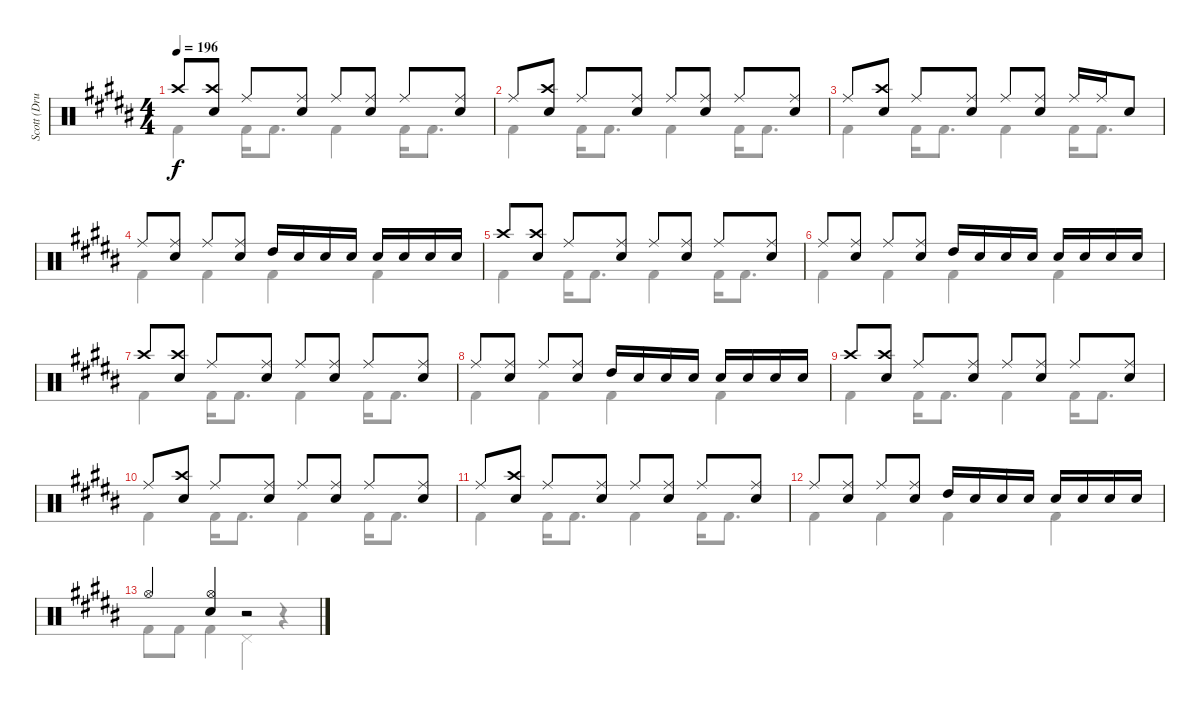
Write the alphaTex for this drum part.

\track ("Scott (Drums)" "Scott (Dru") {instrument percussion}
\staff {score}
\articulation defaults
\voice
\ts (4 4)
\tempo 196
\clef neutral
\ks b "Crash high (hit)".8{dy f}
("Crash high (hit)" "Electric Snare (hit)").8 "Ride (middle)".8 ("Ride (middle)" "Electric Snare (hit)").8 "Ride (middle)".8 ("Ride (middle)" "Electric Snare (hit)").8 "Ride (middle)".8 ("Ride (middle)" "Electric Snare (hit)").8 |
"Ride (middle)".8 ("Crash high (hit)" "Electric Snare (hit)").8 "Ride (middle)".8 ("Ride (middle)" "Electric Snare (hit)").8 "Ride (middle)".8 ("Ride (middle)" "Electric Snare (hit)").8 "Ride (middle)".8 ("Ride (middle)" "Electric Snare (hit)").8 |
"Ride (middle)".8 ("Crash high (hit)" "Electric Snare (hit)").8 "Ride (middle)".8 ("Ride (middle)" "Electric Snare (hit)").8 "Ride (middle)".8 ("Ride (middle)" "Electric Snare (hit)").8 "Ride (middle)".16 "Ride (middle)".16 "Electric Snare (hit)".8 |
"Ride (middle)".8 ("Ride (middle)" "Electric Snare (hit)").8 "Ride (middle)".8 ("Ride (middle)" "Electric Snare (hit)").8 "High Tom (hit)".16 "Electric Snare (hit)".16 "Electric Snare (hit)".16 "Electric Snare (hit)".16 "Electric Snare (hit)".16 "Electric Snare (hit)".16 "Electric Snare (hit)".16 "Electric Snare (hit)".16 |
"Crash high (hit)".8 ("Crash high (hit)" "Electric Snare (hit)").8 "Ride (middle)".8 ("Ride (middle)" "Electric Snare (hit)").8 "Ride (middle)".8 ("Ride (middle)" "Electric Snare (hit)").8 "Ride (middle)".8 ("Ride (middle)" "Electric Snare (hit)").8 |
"Ride (middle)".8 ("Ride (middle)" "Electric Snare (hit)").8 "Ride (middle)".8 ("Ride (middle)" "Electric Snare (hit)").8 "High Tom (hit)".16 "Electric Snare (hit)".16 "Electric Snare (hit)".16 "Electric Snare (hit)".16 "Electric Snare (hit)".16 "Electric Snare (hit)".16 "Electric Snare (hit)".16 "Electric Snare (hit)".16 |
"Crash high (hit)".8 ("Crash high (hit)" "Electric Snare (hit)").8 "Ride (middle)".8 ("Ride (middle)" "Electric Snare (hit)").8 "Ride (middle)".8 ("Ride (middle)" "Electric Snare (hit)").8 "Ride (middle)".8 ("Ride (middle)" "Electric Snare (hit)").8 |
"Ride (middle)".8 ("Ride (middle)" "Electric Snare (hit)").8 "Ride (middle)".8 ("Ride (middle)" "Electric Snare (hit)").8 "High Tom (hit)".16 "Electric Snare (hit)".16 "Electric Snare (hit)".16 "Electric Snare (hit)".16 "Electric Snare (hit)".16 "Electric Snare (hit)".16 "Electric Snare (hit)".16 "Electric Snare (hit)".16 |
"Crash high (hit)".8 ("Crash high (hit)" "Electric Snare (hit)").8 "Ride (middle)".8 ("Ride (middle)" "Electric Snare (hit)").8 "Ride (middle)".8 ("Ride (middle)" "Electric Snare (hit)").8 "Ride (middle)".8 ("Ride (middle)" "Electric Snare (hit)").8 |
"Ride (middle)".8 ("Crash high (hit)" "Electric Snare (hit)").8 "Ride (middle)".8 ("Ride (middle)" "Electric Snare (hit)").8 "Ride (middle)".8 ("Ride (middle)" "Electric Snare (hit)").8 "Ride (middle)".8 ("Ride (middle)" "Electric Snare (hit)").8 |
"Ride (middle)".8 ("Crash high (hit)" "Electric Snare (hit)").8 "Ride (middle)".8 ("Ride (middle)" "Electric Snare (hit)").8 "Ride (middle)".8 ("Ride (middle)" "Electric Snare (hit)").8 "Ride (middle)".8 ("Ride (middle)" "Electric Snare (hit)").8 |
"Ride (middle)".8 ("Ride (middle)" "Electric Snare (hit)").8 "Ride (middle)".8 ("Ride (middle)" "Electric Snare (hit)").8 "High Tom (hit)".16 "Electric Snare (hit)".16 "Electric Snare (hit)".16 "Electric Snare (hit)".16 "Electric Snare (hit)".16 "Electric Snare (hit)".16 "Electric Snare (hit)".16 "Electric Snare (hit)".16 |
"Hi-Hat (open)".4 ("Hi-Hat (open)" "Electric Snare (hit)").4 r.2
\voice
\clef neutral
\ottava regular
\simile none
\ks b "Kick (hit) 2".4{dy f} "Kick (hit) 2".16 "Kick (hit) 2".8{d} "Kick (hit) 2".4 "Kick (hit) 2".16 "Kick (hit) 2".8{d}
|
"Kick (hit) 2".4 "Kick (hit) 2".16 "Kick (hit) 2".8{d} "Kick (hit) 2".4 "Kick (hit) 2".16 "Kick (hit) 2".8{d} |
"Kick (hit) 2".4 "Kick (hit) 2".16 "Kick (hit) 2".8{d} "Kick (hit) 2".4 "Kick (hit) 2".16 "Kick (hit) 2".8{d} |
"Kick (hit) 2".4 "Kick (hit) 2".4 "Kick (hit) 2".4 "Kick (hit) 2".4 |
"Kick (hit) 2".4 "Kick (hit) 2".16 "Kick (hit) 2".8{d} "Kick (hit) 2".4 "Kick (hit) 2".16 "Kick (hit) 2".8{d} |
"Kick (hit) 2".4 "Kick (hit) 2".4 "Kick (hit) 2".4 "Kick (hit) 2".4 |
"Kick (hit) 2".4 "Kick (hit) 2".16 "Kick (hit) 2".8{d} "Kick (hit) 2".4 "Kick (hit) 2".16 "Kick (hit) 2".8{d} |
"Kick (hit) 2".4 "Kick (hit) 2".4 "Kick (hit) 2".4 "Kick (hit) 2".4 |
"Kick (hit) 2".4 "Kick (hit) 2".16 "Kick (hit) 2".8{d} "Kick (hit) 2".4 "Kick (hit) 2".16 "Kick (hit) 2".8{d} |
"Kick (hit) 2".4 "Kick (hit) 2".16 "Kick (hit) 2".8{d} "Kick (hit) 2".4 "Kick (hit) 2".16 "Kick (hit) 2".8{d} |
"Kick (hit) 2".4 "Kick (hit) 2".16 "Kick (hit) 2".8{d} "Kick (hit) 2".4 "Kick (hit) 2".16 "Kick (hit) 2".8{d} |
"Kick (hit) 2".4 "Kick (hit) 2".4 "Kick (hit) 2".4 "Kick (hit) 2".4 |
"Kick (hit) 2".8 "Kick (hit) 2".8 "Kick (hit) 2".4 "Pedal Hi-Hat (hit)".4 r.4
